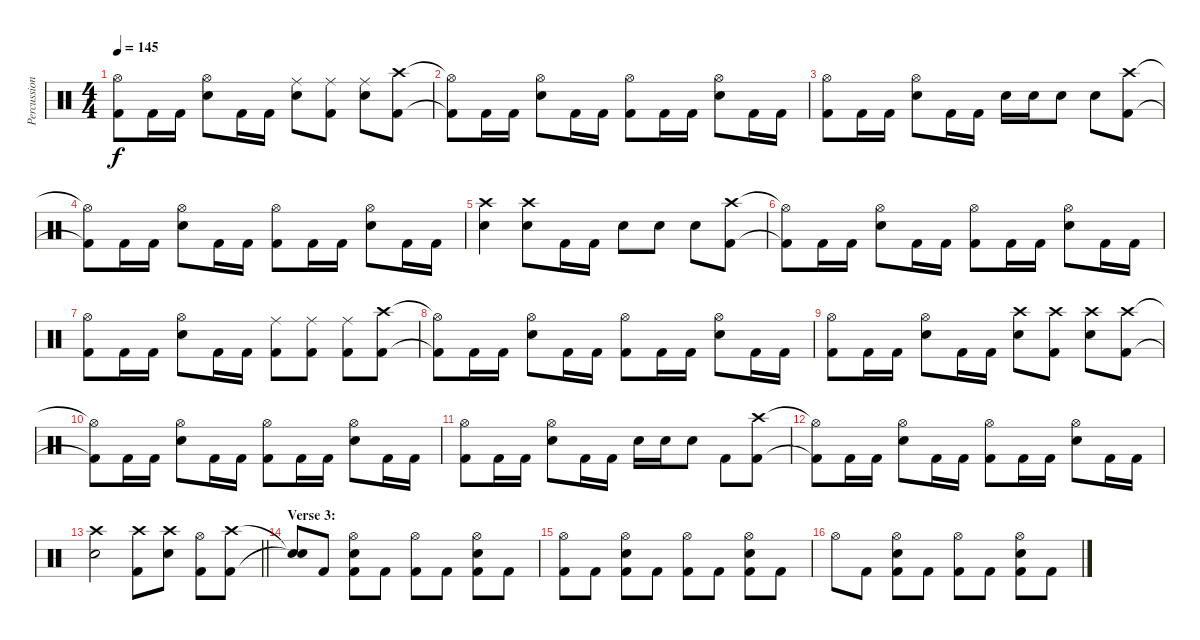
\track ("Percussion" "Percussion") {instrument percussion}
\staff {score}
\articulation defaults
\ts (4 4)
\tempo 145
\clef neutral
\ks c
("Hi-Hat (open)" "Kick (hit) 2").8{dy f} "Kick (hit) 2".16 "Kick (hit) 2".16 ("Hi-Hat (open)" "Electric Snare (hit)").8 "Kick (hit) 2".16 "Kick (hit) 2".16 ("Ride (middle)" "Electric Snare (hit)").8 ("Ride (middle)" "Kick (hit) 2").8 ("Ride (middle)" "Electric Snare (hit)").8 ("Crash high (hit)" "Kick (hit) 2").8 |
("Hi-Hat (open)"{t} "Kick (hit) 2"{t}).8 "Kick (hit) 2".16 "Kick (hit) 2".16 ("Hi-Hat (open)" "Electric Snare (hit)").8 "Kick (hit) 2".16 "Kick (hit) 2".16 ("Hi-Hat (open)" "Kick (hit) 2").8 "Kick (hit) 2".16 "Kick (hit) 2".16 ("Hi-Hat (open)" "Electric Snare (hit)").8 "Kick (hit) 2".16 "Kick (hit) 2".16 |
("Hi-Hat (open)" "Kick (hit) 2").8 "Kick (hit) 2".16 "Kick (hit) 2".16 ("Hi-Hat (open)" "Electric Snare (hit)").8 "Kick (hit) 2".16 "Kick (hit) 2".16 "Electric Snare (hit)".16 "Electric Snare (hit)".16 "Electric Snare (hit)".8 "Electric Snare (hit)".8 ("Crash high (hit)" "Kick (hit) 2").8 |
("Hi-Hat (open)"{t} "Kick (hit) 2"{t}).8 "Kick (hit) 2".16 "Kick (hit) 2".16 ("Hi-Hat (open)" "Electric Snare (hit)").8 "Kick (hit) 2".16 "Kick (hit) 2".16 ("Hi-Hat (open)" "Kick (hit) 2").8 "Kick (hit) 2".16 "Kick (hit) 2".16 ("Hi-Hat (open)" "Electric Snare (hit)").8 "Kick (hit) 2".16 "Kick (hit) 2".16 |
("Crash high (hit)" "Electric Snare (hit)").4 ("Crash high (hit)" "Electric Snare (hit)").8 "Kick (hit) 2".16 "Kick (hit) 2".16 "Electric Snare (hit)".8 "Electric Snare (hit)".8 "Electric Snare (hit)".8 ("Crash high (hit)" "Kick (hit) 2").8 |
("Hi-Hat (open)"{t} "Kick (hit) 2"{t}).8 "Kick (hit) 2".16 "Kick (hit) 2".16 ("Hi-Hat (open)" "Electric Snare (hit)").8 "Kick (hit) 2".16 "Kick (hit) 2".16 ("Hi-Hat (open)" "Kick (hit) 2").8 "Kick (hit) 2".16 "Kick (hit) 2".16 ("Hi-Hat (open)" "Electric Snare (hit)").8 "Kick (hit) 2".16 "Kick (hit) 2".16 |
("Hi-Hat (open)" "Kick (hit) 2").8 "Kick (hit) 2".16 "Kick (hit) 2".16 ("Hi-Hat (open)" "Electric Snare (hit)").8 "Kick (hit) 2".16 "Kick (hit) 2".16 ("Ride (middle)" "Kick (hit) 2").8 ("Ride (middle)" "Kick (hit) 2").8 ("Ride (middle)" "Kick (hit) 2").8 ("Crash high (hit)" "Kick (hit) 2").8 |
("Hi-Hat (open)"{t} "Kick (hit) 2"{t}).8 "Kick (hit) 2".16 "Kick (hit) 2".16 ("Hi-Hat (open)" "Electric Snare (hit)").8 "Kick (hit) 2".16 "Kick (hit) 2".16 ("Hi-Hat (open)" "Kick (hit) 2").8 "Kick (hit) 2".16 "Kick (hit) 2".16 ("Hi-Hat (open)" "Electric Snare (hit)").8 "Kick (hit) 2".16 "Kick (hit) 2".16 |
("Hi-Hat (open)" "Kick (hit) 2").8 "Kick (hit) 2".16 "Kick (hit) 2".16 ("Hi-Hat (open)" "Electric Snare (hit)").8 "Kick (hit) 2".16 "Kick (hit) 2".16 ("Crash high (hit)" "Electric Snare (hit)").8 ("Crash high (hit)" "Kick (hit) 2").8 ("Crash high (hit)" "Electric Snare (hit)").8 ("Crash high (hit)" "Kick (hit) 2").8 |
("Hi-Hat (open)"{t} "Kick (hit) 2"{t}).8 "Kick (hit) 2".16 "Kick (hit) 2".16 ("Hi-Hat (open)" "Electric Snare (hit)").8 "Kick (hit) 2".16 "Kick (hit) 2".16 ("Hi-Hat (open)" "Kick (hit) 2").8 "Kick (hit) 2".16 "Kick (hit) 2".16 ("Hi-Hat (open)" "Electric Snare (hit)").8 "Kick (hit) 2".16 "Kick (hit) 2".16 |
("Hi-Hat (open)" "Kick (hit) 2").8 "Kick (hit) 2".16 "Kick (hit) 2".16 ("Hi-Hat (open)" "Electric Snare (hit)").8 "Kick (hit) 2".16 "Kick (hit) 2".16 "Electric Snare (hit)".16 "Electric Snare (hit)".16 "Electric Snare (hit)".8 "Kick (hit) 2".8 ("Crash high (hit)" "Kick (hit) 2").8 |
("Hi-Hat (open)"{t} "Kick (hit) 2"{t}).8 "Kick (hit) 2".16 "Kick (hit) 2".16 ("Hi-Hat (open)" "Electric Snare (hit)").8 "Kick (hit) 2".16 "Kick (hit) 2".16 ("Hi-Hat (open)" "Kick (hit) 2").8 "Kick (hit) 2".16 "Kick (hit) 2".16 ("Hi-Hat (open)" "Electric Snare (hit)").8 "Kick (hit) 2".16 "Kick (hit) 2".16 |
\barLineRight lightlight
("Crash high (hit)" "Electric Snare (hit)").2 ("Crash high (hit)" "Kick (hit) 2").8 ("Crash high (hit)" "Electric Snare (hit)").8 ("Hi-Hat (open)" "Kick (hit) 2").8 ("Crash high (hit)" "Kick (hit) 2").8 |
\section ("" "Verse 3:")
("Snare (hit)"{t} "Snare (hit)"{t}).8 "Kick (hit) 2".8 ("Hi-Hat (open)" "Electric Snare (hit)" "Kick (hit) 2").8 "Kick (hit) 2".8 ("Hi-Hat (open)" "Kick (hit) 2").8 "Kick (hit) 2".8 ("Hi-Hat (open)" "Electric Snare (hit)" "Kick (hit) 2").8 "Kick (hit) 2".8 |
("Hi-Hat (open)" "Kick (hit) 2").8 "Kick (hit) 2".8 ("Hi-Hat (open)" "Electric Snare (hit)" "Kick (hit) 2").8 "Kick (hit) 2".8 ("Hi-Hat (open)" "Kick (hit) 2").8 "Kick (hit) 2".8 ("Hi-Hat (open)" "Electric Snare (hit)" "Kick (hit) 2").8 "Kick (hit) 2".8 |
"Hi-Hat (open)".8 "Kick (hit) 2".8 ("Hi-Hat (open)" "Electric Snare (hit)" "Kick (hit) 2").8 "Kick (hit) 2".8 ("Hi-Hat (open)" "Kick (hit) 2").8 "Kick (hit) 2".8 ("Hi-Hat (open)" "Electric Snare (hit)" "Kick (hit) 2").8 "Kick (hit) 2".8
